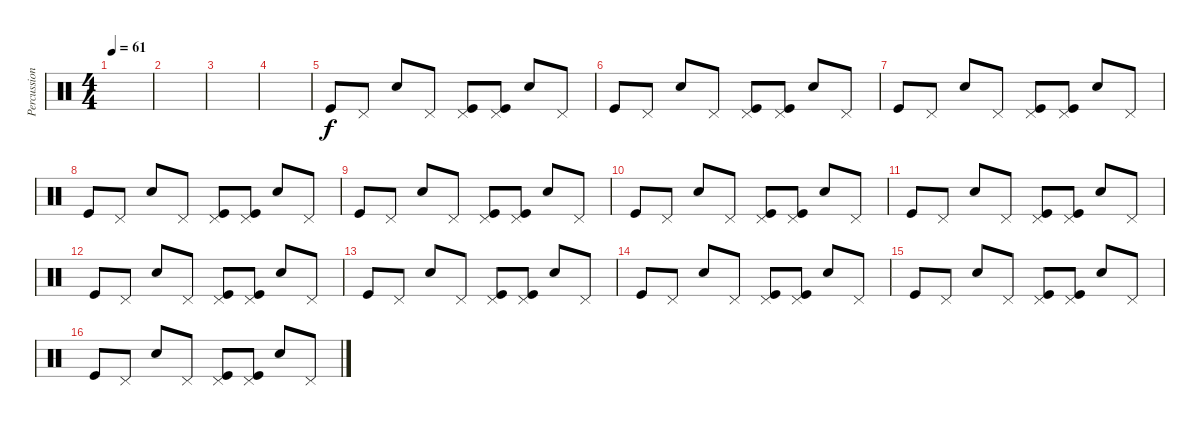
\track ("Percussion" "Percussion") {instrument percussion}
\staff {score}
\articulation defaults
\ts (4 4)
\tempo 61
\clef neutral
\ks c
|
|
|
|
"Kick (hit)".8 "Pedal Hi-Hat (hit)".8 "Snare (hit) 2".8 "Pedal Hi-Hat (hit)".8 ("Pedal Hi-Hat (hit)" "Kick (hit)").8 ("Pedal Hi-Hat (hit)" "Kick (hit)").8 "Snare (hit) 2".8 "Pedal Hi-Hat (hit)".8 |
"Kick (hit)".8 "Pedal Hi-Hat (hit)".8 "Snare (hit) 2".8 "Pedal Hi-Hat (hit)".8 ("Pedal Hi-Hat (hit)" "Kick (hit)").8 ("Pedal Hi-Hat (hit)" "Kick (hit)").8 "Snare (hit) 2".8 "Pedal Hi-Hat (hit)".8 |
"Kick (hit)".8 "Pedal Hi-Hat (hit)".8 "Snare (hit) 2".8 "Pedal Hi-Hat (hit)".8 ("Pedal Hi-Hat (hit)" "Kick (hit)").8 ("Pedal Hi-Hat (hit)" "Kick (hit)").8 "Snare (hit) 2".8 "Pedal Hi-Hat (hit)".8 |
"Kick (hit)".8 "Pedal Hi-Hat (hit)".8 "Snare (hit) 2".8 "Pedal Hi-Hat (hit)".8 ("Pedal Hi-Hat (hit)" "Kick (hit)").8 ("Pedal Hi-Hat (hit)" "Kick (hit)").8 "Snare (hit) 2".8 "Pedal Hi-Hat (hit)".8 |
"Kick (hit)".8 "Pedal Hi-Hat (hit)".8 "Snare (hit) 2".8 "Pedal Hi-Hat (hit)".8 ("Pedal Hi-Hat (hit)" "Kick (hit)").8 ("Pedal Hi-Hat (hit)" "Kick (hit)").8 "Snare (hit) 2".8 "Pedal Hi-Hat (hit)".8 |
"Kick (hit)".8 "Pedal Hi-Hat (hit)".8 "Snare (hit) 2".8 "Pedal Hi-Hat (hit)".8 ("Pedal Hi-Hat (hit)" "Kick (hit)").8 ("Pedal Hi-Hat (hit)" "Kick (hit)").8 "Snare (hit) 2".8 "Pedal Hi-Hat (hit)".8 |
"Kick (hit)".8 "Pedal Hi-Hat (hit)".8 "Snare (hit) 2".8 "Pedal Hi-Hat (hit)".8 ("Pedal Hi-Hat (hit)" "Kick (hit)").8 ("Pedal Hi-Hat (hit)" "Kick (hit)").8 "Snare (hit) 2".8 "Pedal Hi-Hat (hit)".8 |
"Kick (hit)".8 "Pedal Hi-Hat (hit)".8 "Snare (hit) 2".8 "Pedal Hi-Hat (hit)".8 ("Pedal Hi-Hat (hit)" "Kick (hit)").8 ("Pedal Hi-Hat (hit)" "Kick (hit)").8 "Snare (hit) 2".8 "Pedal Hi-Hat (hit)".8 |
"Kick (hit)".8 "Pedal Hi-Hat (hit)".8 "Snare (hit) 2".8 "Pedal Hi-Hat (hit)".8 ("Pedal Hi-Hat (hit)" "Kick (hit)").8 ("Pedal Hi-Hat (hit)" "Kick (hit)").8 "Snare (hit) 2".8 "Pedal Hi-Hat (hit)".8 |
"Kick (hit)".8 "Pedal Hi-Hat (hit)".8 "Snare (hit) 2".8 "Pedal Hi-Hat (hit)".8 ("Pedal Hi-Hat (hit)" "Kick (hit)").8 ("Pedal Hi-Hat (hit)" "Kick (hit)").8 "Snare (hit) 2".8 "Pedal Hi-Hat (hit)".8 |
"Kick (hit)".8 "Pedal Hi-Hat (hit)".8 "Snare (hit) 2".8 "Pedal Hi-Hat (hit)".8 ("Pedal Hi-Hat (hit)" "Kick (hit)").8 ("Pedal Hi-Hat (hit)" "Kick (hit)").8 "Snare (hit) 2".8 "Pedal Hi-Hat (hit)".8 |
"Kick (hit)".8 "Pedal Hi-Hat (hit)".8 "Snare (hit) 2".8 "Pedal Hi-Hat (hit)".8 ("Pedal Hi-Hat (hit)" "Kick (hit)").8 ("Pedal Hi-Hat (hit)" "Kick (hit)").8 "Snare (hit) 2".8 "Pedal Hi-Hat (hit)".8
